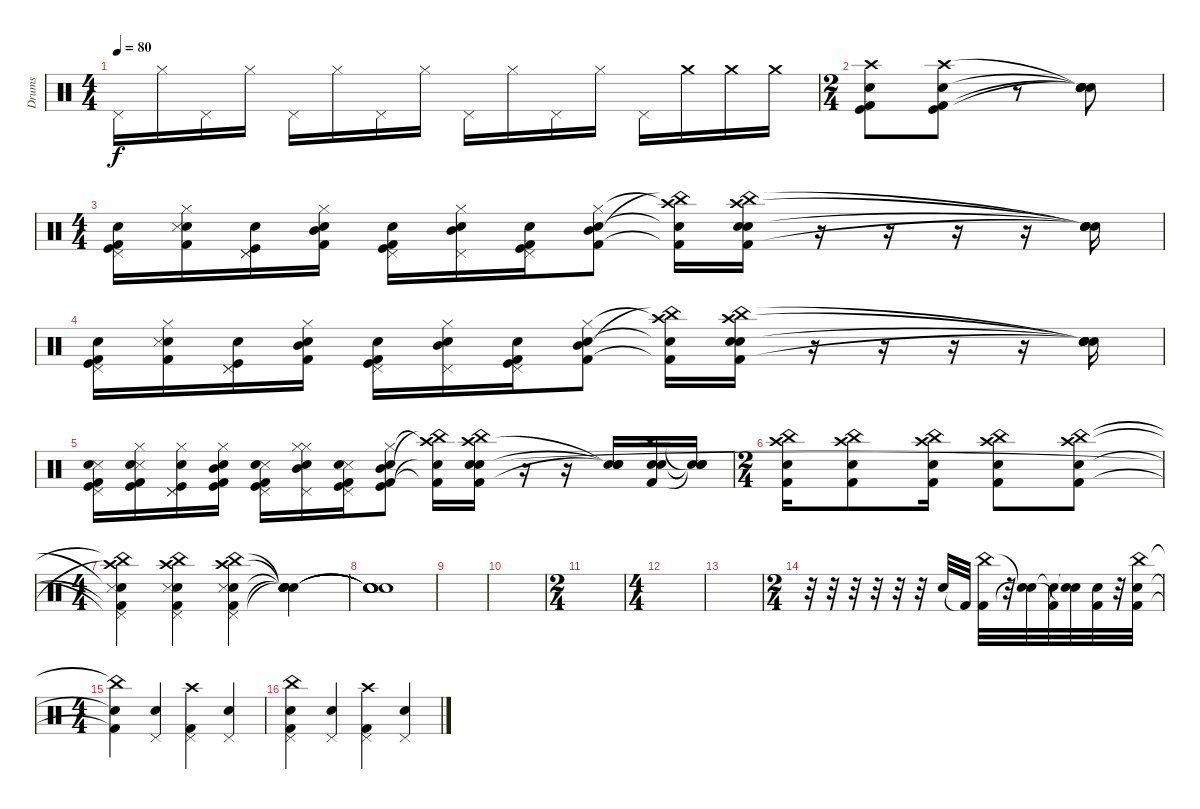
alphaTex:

\track ("Drums" "Drums") {instrument percussion}
\staff {score}
\articulation defaults
\ts (4 4)
\tempo 80
\clef neutral
\ks c "Pedal Hi-Hat (hit)".16{dy f} "Hi-Hat (closed)".16 "Pedal Hi-Hat (hit)".16 "Hi-Hat (closed)".16 "Pedal Hi-Hat (hit)".16 "Hi-Hat (closed)".16 "Pedal Hi-Hat (hit)".16 "Hi-Hat (closed)".16 "Pedal Hi-Hat (hit)".16 "Hi-Hat (closed)".16 "Pedal Hi-Hat (hit)".16 "Hi-Hat (closed)".16 "Pedal Hi-Hat (hit)".16 "Crash medium (hit)".16 "Crash medium (hit)".16 "Crash medium (hit)".16
|
\ts (2 4)
("Kick (hit) 2" "Snare (hit) 2" "Kick (hit)" "Crash high (hit)").8 ("Kick (hit) 2" "Snare (hit) 2" "Kick (hit)" "Crash high (hit)").8 r.8 ("Snare (hit)"{t} "Snare (hit)"{t} "Snare (hit)"{t} "Snare (hit)"{t}).8 |
\ts (4 4)
("Kick (hit) 2" "Electric Snare (hit)" "Pedal Hi-Hat (hit)" "Kick (hit)").16{volume 16} ("Kick (hit) 2" "Electric Snare (hit)" "Hi-Hat (closed)" "Snare (side stick) 3").16 ("Pedal Hi-Hat (hit)" "Electric Snare (hit)" "Pedal Hi-Hat (hit)" "Kick (hit)").16 ("Kick (hit) 2" "Electric Snare (hit)" "Hi-Hat (closed)" "Mid Tom (hit)").16 ("Kick (hit) 2" "Electric Snare (hit)" "Pedal Hi-Hat (hit)" "Kick (hit)").16 ("Pedal Hi-Hat (hit)" "Electric Snare (hit)" "Hi-Hat (closed)" "Mid Tom (hit)").16 ("Kick (hit) 2" "Electric Snare (hit)" "Pedal Hi-Hat (hit)" "Kick (hit)").16 ("Kick (hit) 2" "Electric Snare (hit)" "Hi-Hat (closed)" "Mid Tom (hit)").8 ("Kick (hit) 2"{t} "Snare (hit) 2"{t} "Crash high (hit)"{t} "China (hit)"{t}).16 ("Kick (hit) 2" "Snare (hit) 2" "Crash high (hit)" "China (hit)" "Electric Snare (hit)").16 r.16 r.16 r.16 r.16 ("Snare (hit)"{t} "Snare (hit)"{t} "Snare (hit)"{t} "Snare (hit)"{t}).16 |
("Kick (hit) 2" "Electric Snare (hit)" "Pedal Hi-Hat (hit)" "Kick (hit)").16{volume 16} ("Kick (hit) 2" "Electric Snare (hit)" "Hi-Hat (closed)" "Snare (side stick) 3").16 ("Pedal Hi-Hat (hit)" "Electric Snare (hit)" "Pedal Hi-Hat (hit)" "Kick (hit)").16 ("Kick (hit) 2" "Electric Snare (hit)" "Hi-Hat (closed)" "Mid Tom (hit)").16 ("Kick (hit) 2" "Electric Snare (hit)" "Pedal Hi-Hat (hit)" "Kick (hit)").16 ("Pedal Hi-Hat (hit)" "Electric Snare (hit)" "Hi-Hat (closed)" "Mid Tom (hit)").16 ("Kick (hit) 2" "Electric Snare (hit)" "Pedal Hi-Hat (hit)" "Kick (hit)").16 ("Kick (hit) 2" "Electric Snare (hit)" "Hi-Hat (closed)" "Mid Tom (hit)").8 ("Kick (hit) 2"{t} "Snare (hit) 2"{t} "Crash high (hit)"{t} "China (hit)"{t}).16 ("Kick (hit) 2" "Snare (hit) 2" "Crash high (hit)" "China (hit)" "Electric Snare (hit)").16 r.16 r.16 r.16 r.16 ("Snare (hit)"{t} "Snare (hit)"{t} "Snare (hit)"{t} "Snare (hit)"{t}).16 |
("Kick (hit) 2" "Snare (side stick) 3" "Pedal Hi-Hat (hit)" "Kick (hit)" "Electric Snare (hit)").16{volume 16} ("Kick (hit) 2" "Kick (hit)" "Hi-Hat (closed)" "Snare (side stick) 3" "Electric Snare (hit)").16 ("Pedal Hi-Hat (hit)" "Hi-Hat (closed)" "Pedal Hi-Hat (hit)" "Kick (hit)" "Electric Snare (hit)").16 ("Kick (hit) 2" "Kick (hit)" "Hi-Hat (closed)" "Mid Tom (hit)" "Electric Snare (hit)").16 ("Kick (hit) 2" "Snare (side stick) 3" "Pedal Hi-Hat (hit)" "Kick (hit)" "Electric Snare (hit)").16 ("Pedal Hi-Hat (hit)" "Hi-Hat (closed)" "Hi-Hat (closed)" "Mid Tom (hit)" "Electric Snare (hit)").16 ("Kick (hit) 2" "Snare (side stick) 3" "Pedal Hi-Hat (hit)" "Kick (hit)" "Electric Snare (hit)").16 ("Kick (hit) 2" "Kick (hit)" "Hi-Hat (closed)" "Mid Tom (hit)" "Electric Snare (hit)").8 ("Kick (hit) 2"{t} "Snare (hit) 2"{t} "Crash high (hit)"{t} "China (hit)"{t}).16 ("Kick (hit) 2" "Snare (hit) 2" "Crash high (hit)" "China (hit)" "Electric Snare (hit)").16 r.16 r.16 ("Snare (hit)"{t} "Snare (hit)"{t} "Snare (hit)"{t}).16 ("Kick (hit) 2" "Crash high (hit)" "Snare (hit) 2" "Electric Snare (hit)").16 ("Snare (hit)"{t} "Snare (hit)"{t} "Snare (hit)"{t} "Snare (hit)"{t}).16 |
\ts (2 4)
("Snare (hit) 2" "Kick (hit) 2" "Crash high (hit)" "China (hit)").16 ("Snare (hit) 2" "Kick (hit) 2" "Crash high (hit)" "China (hit)").8 ("Snare (hit) 2" "Kick (hit) 2" "Crash high (hit)" "China (hit)").16 ("Snare (hit) 2" "Kick (hit) 2" "Crash high (hit)" "China (hit)").8 ("Snare (hit) 2" "Kick (hit) 2" "Crash high (hit)" "China (hit)").8 |
\ts (4 4)
("Kick (hit) 2"{t} "Crash high (hit)"{t} "China (hit)"{t} "Snare (hit) 2"{t} "Pedal Hi-Hat (hit)"{t} "Snare (side stick) 3").4 ("Kick (hit) 2" "Crash high (hit)" "China (hit)" "Snare (hit) 2" "Pedal Hi-Hat (hit)" "Snare (side stick) 3").4 ("Kick (hit) 2" "Crash high (hit)" "China (hit)" "Snare (hit) 2" "Pedal Hi-Hat (hit)" "Snare (side stick) 3").4 ("Snare (hit)"{t} "Snare (hit)"{t} "Snare (hit)"{t} "Snare (hit)"{t} "Snare (hit)"{t}).4 |
("Snare (hit)"{t} "Snare (hit)"{t} "Snare (hit)"{t} "Snare (hit)"{t} "Snare (hit)"{t}).1 |
|
|
\ts (2 4)
|
\ts (4 4)
|
|
\ts (2 4)
r.32 r.32 r.32 r.32 r.32 r.32 "Electric Snare (hit)".32 "Kick (hit) 2"{t}.32 ("Kick (hit) 2" "China (hit)").32 r.32 ("Snare (hit)"{t} "Snare (hit)"{t}).32 ("Electric Snare (hit)"{t} "Kick (hit) 2"{t}).32 ("Electric Snare (hit)"{t} "Snare (hit)"{t}).32 ("Electric Snare (hit)" "Kick (hit) 2").32 r.32 ("Electric Snare (hit)" "China (hit)" "Kick (hit) 2").32 |
\ts (4 4)
("Electric Snare (hit)"{t} "China (hit)"{t} "Kick (hit) 2"{t}).4 ("Electric Snare (hit)" "Pedal Hi-Hat (hit)").4 ("Kick (hit) 2" "Crash high (hit)" "Pedal Hi-Hat (hit)").4 ("Electric Snare (hit)" "Pedal Hi-Hat (hit)").4 |
("Electric Snare (hit)" "China (hit)" "Kick (hit) 2" "Pedal Hi-Hat (hit)").4 ("Electric Snare (hit)" "Pedal Hi-Hat (hit)").4 ("Kick (hit) 2" "Crash high (hit)" "Pedal Hi-Hat (hit)").4 ("Electric Snare (hit)" "Pedal Hi-Hat (hit)").4
